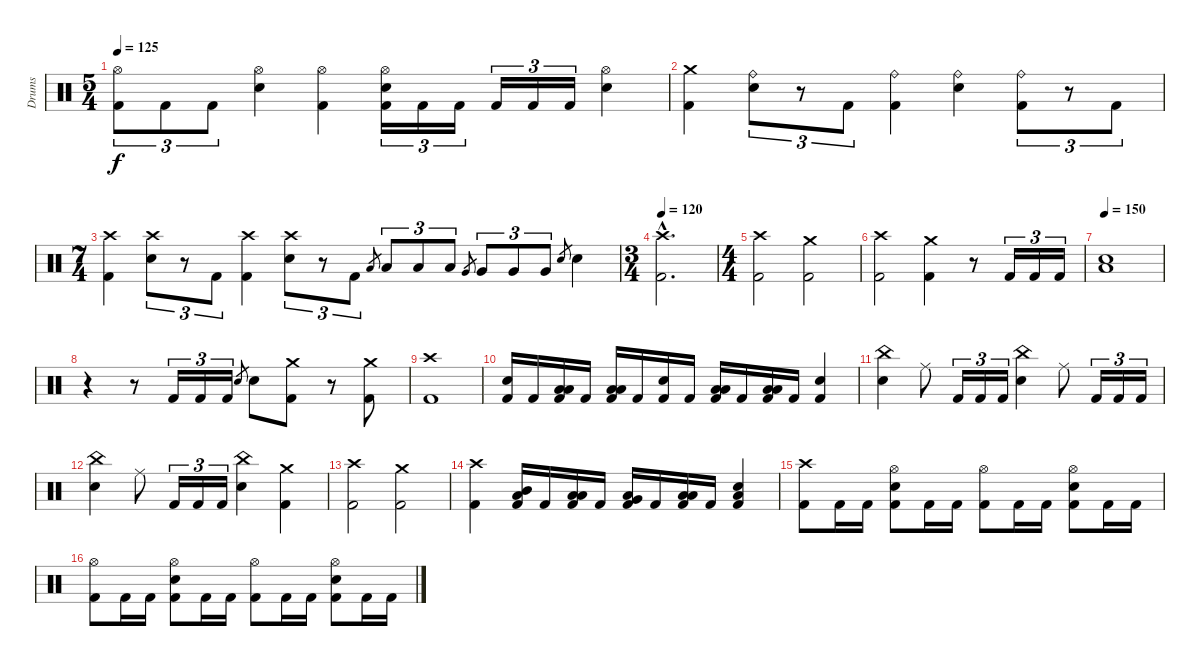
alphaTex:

\track ("Drums" "Drums") {instrument percussion}
\staff {score}
\articulation defaults
\ts (5 4)
\tempo 125
\clef neutral
\ks c
("Hi-Hat (open)" "Kick (hit) 2").8{tu (3 2) dy f} "Kick (hit) 2".8{tu (3 2)} "Kick (hit) 2".8{tu (3 2)} ("Hi-Hat (open)" "Electric Snare (hit)").4 ("Hi-Hat (open)" "Kick (hit) 2").4 ("Hi-Hat (open)" "Electric Snare (hit)" "Kick (hit) 2").16{tu (3 2)} "Kick (hit) 2".16{tu (3 2)} "Kick (hit) 2".16{tu (3 2)} "Kick (hit) 2".16{tu (3 2)} "Kick (hit) 2".16{tu (3 2)} "Kick (hit) 2".16{tu (3 2)} ("Hi-Hat (open)" "Electric Snare (hit)").4 |
("Crash medium (hit)" "Kick (hit) 2").4 ("Ride (bell)" "Electric Snare (hit)").8{tu (3 2)} r.8{tu (3 2)} "Kick (hit) 2".8{tu (3 2)} ("Ride (bell)" "Kick (hit) 2").4 ("Ride (bell)" "Electric Snare (hit)").4 ("Ride (bell)" "Kick (hit) 2").8{tu (3 2)} r.8{tu (3 2)} "Kick (hit) 2".8{tu (3 2)} |
\ts (7 4)
("Crash high (hit)" "Kick (hit) 2").4 ("Crash high (hit)" "Electric Snare (hit)").8{tu (3 2)} r.8{tu (3 2)} "Kick (hit) 2".8{tu (3 2)} ("Crash high (hit)" "Kick (hit) 2").4 ("Crash high (hit)" "Electric Snare (hit)").8{tu (3 2)} r.8{tu (3 2)} "Kick (hit) 2".8{tu (3 2)} "Low Tom (hit)".8{gr} "Low Tom (hit)".8{tu (3 2)} "Low Tom (hit)".8{tu (3 2)} "Low Tom (hit)".8{tu (3 2)} "Very Low Tom (hit)".8{gr} "Very Low Tom (hit)".8{tu (3 2)} "Very Low Tom (hit)".8{tu (3 2)} "Very Low Tom (hit)".8{tu (3 2)} "Electric Snare (hit)".8{gr} "Electric Snare (hit)".4 |
\ts (3 4)
\tempo 120
("Crash high (hit)"{hac} "Kick (hit) 2"{hac}).2{d} |
\ts (4 4)
("Crash high (hit)" "Kick (hit) 2").2 ("Crash medium (hit)" "Kick (hit) 2").2 |
("Crash high (hit)" "Kick (hit) 2").2 ("Crash medium (hit)" "Kick (hit) 2").4 r.8 "Kick (hit) 2".16{tu (3 2)} "Kick (hit) 2".16{tu (3 2)} "Kick (hit) 2".16{tu (3 2)} |
\tempo 150
("Low Floor Tom (hit)" "Electric Snare (hit)").1 |
r.4 r.8 "Kick (hit) 2".16{tu (3 2)} "Kick (hit) 2".16{tu (3 2)} "Kick (hit) 2".16{tu (3 2)} "Electric Snare (hit)".8{gr} "Electric Snare (hit)".8 ("Crash medium (hit)" "Kick (hit) 2").8 r.8 ("Crash medium (hit)" "Kick (hit) 2").8 |
("Crash high (hit)" "Kick (hit) 2").1 |
("Electric Snare (hit)" "Kick (hit) 2").16 "Kick (hit) 2".16 ("Low Tom (hit)" "Low Floor Tom (hit)" "Kick (hit) 2").16 "Kick (hit) 2".16 ("Low Tom (hit)" "Low Floor Tom (hit)" "Kick (hit) 2").16 "Kick (hit) 2".16 ("Electric Snare (hit)" "Kick (hit) 2").16 "Kick (hit) 2".16 ("Low Tom (hit)" "Low Floor Tom (hit)" "Kick (hit) 2").16 "Kick (hit) 2".16 ("Low Tom (hit)" "Low Floor Tom (hit)" "Kick (hit) 2").16 "Kick (hit) 2".16 ("Electric Snare (hit)" "Kick (hit) 2").4 |
("China (hit)" "Electric Snare (hit)").4 "Ride (middle)".8 "Kick (hit) 2".16{tu (3 2)} "Kick (hit) 2".16{tu (3 2)} "Kick (hit) 2".16{tu (3 2)} ("China (hit)" "Electric Snare (hit)").4 "Ride (middle)".8 "Kick (hit) 2".16{tu (3 2)} "Kick (hit) 2".16{tu (3 2)} "Kick (hit) 2".16{tu (3 2)} |
("China (hit)" "Electric Snare (hit)").4 "Ride (middle)".8 "Kick (hit) 2".16{tu (3 2)} "Kick (hit) 2".16{tu (3 2)} "Kick (hit) 2".16{tu (3 2)} ("China (hit)" "Electric Snare (hit)").4 ("Crash medium (hit)" "Kick (hit) 2").4 |
("Crash high (hit)" "Kick (hit) 2").2 ("Crash medium (hit)" "Kick (hit) 2").2 |
("Crash high (hit)" "Kick (hit) 2").4 ("Mid Tom (hit)" "Low Floor Tom (hit)" "Kick (hit) 2").16 "Kick (hit) 2".16 ("Low Tom (hit)" "Low Floor Tom (hit)" "Kick (hit) 2").16 "Kick (hit) 2".16 ("Very Low Tom (hit)" "Low Floor Tom (hit)" "Kick (hit) 2").16 "Kick (hit) 2".16 ("Low Floor Tom (hit)" "Low Floor Tom (hit)" "Kick (hit) 2").16 "Kick (hit) 2".16 ("Low Floor Tom (hit)" "Electric Snare (hit)" "Kick (hit) 2").4 |
("Crash high (hit)" "Kick (hit) 2").8 "Kick (hit) 2".16 "Kick (hit) 2".16 ("Hi-Hat (open)" "Electric Snare (hit)" "Kick (hit) 2").8 "Kick (hit) 2".16 "Kick (hit) 2".16 ("Hi-Hat (open)" "Kick (hit) 2").8 "Kick (hit) 2".16 "Kick (hit) 2".16 ("Hi-Hat (open)" "Electric Snare (hit)" "Kick (hit) 2").8 "Kick (hit) 2".16 "Kick (hit) 2".16 |
("Hi-Hat (open)" "Kick (hit) 2").8 "Kick (hit) 2".16 "Kick (hit) 2".16 ("Hi-Hat (open)" "Electric Snare (hit)" "Kick (hit) 2").8 "Kick (hit) 2".16 "Kick (hit) 2".16 ("Hi-Hat (open)" "Kick (hit) 2").8 "Kick (hit) 2".16 "Kick (hit) 2".16 ("Hi-Hat (open)" "Electric Snare (hit)" "Kick (hit) 2").8 "Kick (hit) 2".16 "Kick (hit) 2".16
